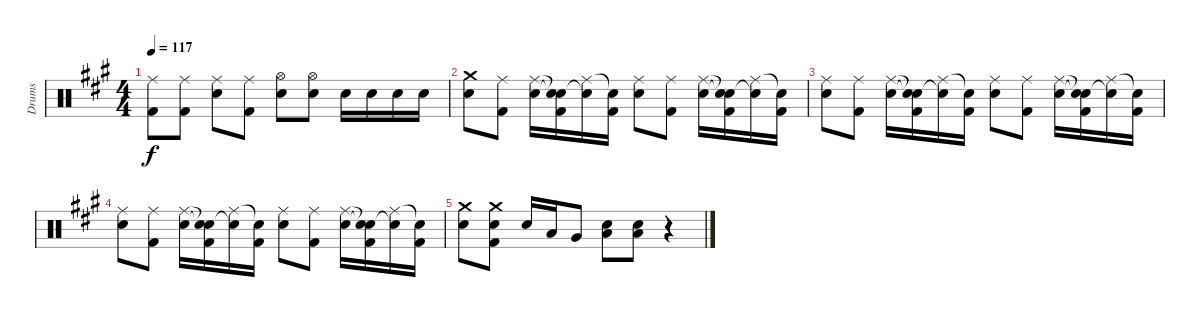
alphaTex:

\track ("Drums" "Drums") {instrument percussion}
\staff {score}
\articulation defaults
\ts (4 4)
\tempo 117
\clef neutral
\ks f#minor
("Ride (middle)" "Kick (hit) 2").8{dy f} ("Ride (middle)" "Kick (hit) 2").8 ("Ride (middle)" "Electric Snare (hit)").8 ("Ride (middle)" "Kick (hit) 2").8 ("Hi-Hat (open)" "Electric Snare (hit)").8 ("Hi-Hat (open)" "Electric Snare (hit)").8 "Electric Snare (hit)".16 "Electric Snare (hit)".16 "Electric Snare (hit)".16 "Electric Snare (hit)".16 |
("Crash medium (hit)" "Electric Snare (hit)").8 ("Ride (middle)" "Kick (hit) 2").8 ("Ride (middle)" "Electric Snare (hit)").16 ("Snare (hit)"{t} "Snare (hit)"{t} "Kick (hit) 2").16 ("Ride (middle)" "Snare (hit)"{t}).16 ("Snare (hit)"{t} "Kick (hit) 2").16 ("Ride (middle)" "Electric Snare (hit)").8 ("Ride (middle)" "Kick (hit) 2").8 ("Ride (middle)" "Electric Snare (hit)").16 ("Snare (hit)"{t} "Snare (hit)"{t} "Kick (hit) 2").16 ("Ride (middle)" "Snare (hit)"{t}).16 ("Snare (hit)"{t} "Kick (hit) 2").16 |
("Ride (middle)" "Electric Snare (hit)").8 ("Ride (middle)" "Kick (hit) 2").8 ("Ride (middle)" "Electric Snare (hit)").16 ("Snare (hit)"{t} "Snare (hit)"{t} "Kick (hit) 2").16 ("Ride (middle)" "Snare (hit)"{t}).16 ("Snare (hit)"{t} "Kick (hit) 2").16 ("Ride (middle)" "Electric Snare (hit)").8 ("Ride (middle)" "Kick (hit) 2").8 ("Ride (middle)" "Electric Snare (hit)").16 ("Snare (hit)"{t} "Snare (hit)"{t} "Kick (hit) 2").16 ("Ride (middle)" "Snare (hit)"{t}).16 ("Snare (hit)"{t} "Kick (hit) 2").16 |
("Ride (middle)" "Electric Snare (hit)").8 ("Ride (middle)" "Kick (hit) 2").8 ("Ride (middle)" "Electric Snare (hit)").16 ("Snare (hit)"{t} "Snare (hit)"{t} "Kick (hit) 2").16 ("Ride (middle)" "Snare (hit)"{t}).16 ("Snare (hit)"{t} "Kick (hit) 2").16 ("Ride (middle)" "Electric Snare (hit)").8 ("Ride (middle)" "Kick (hit) 2").8 ("Ride (middle)" "Electric Snare (hit)").16 ("Snare (hit)"{t} "Snare (hit)"{t} "Kick (hit) 2").16 ("Ride (middle)" "Snare (hit)"{t}).16 ("Snare (hit)"{t} "Kick (hit) 2").16 |
("Crash medium (hit)" "Electric Snare (hit)").8 ("Crash medium (hit)" "Electric Snare (hit)" "Kick (hit) 2").8 "Electric Snare (hit)".16 "Low Tom (hit)".16 "Very Low Tom (hit)".8 ("Electric Snare (hit)" "Low Floor Tom (hit)").8 ("Electric Snare (hit)" "Low Floor Tom (hit)").8 r.4
